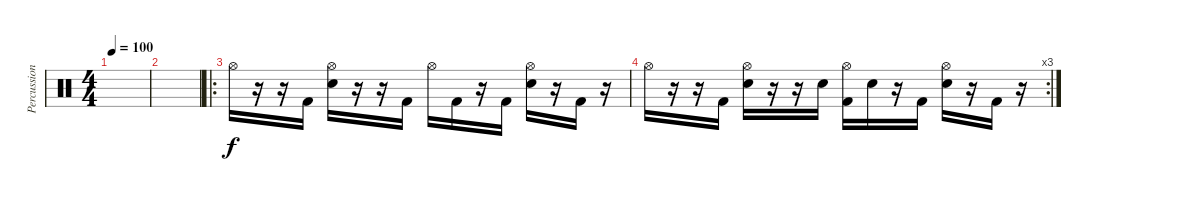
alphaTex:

\track ("Percussion" "Percussion") {instrument percussion}
\staff {score}
\articulation defaults
\ts (4 4)
\tempo 100
\clef neutral
\ks c
|
|
\ro "Hi-Hat (open)".16
r.16 r.16 "Kick (hit) 2".16 ("Hi-Hat (open)" "Electric Snare (hit)").16 r.16 r.16 "Kick (hit) 2".16 "Hi-Hat (open)".16 "Kick (hit) 2".16 r.16 "Kick (hit) 2".16 ("Hi-Hat (open)" "Electric Snare (hit)").16 r.16 "Kick (hit) 2".16 r.16 |
\rc 3 "Hi-Hat (open)".16
r.16 r.16 "Kick (hit) 2".16 ("Hi-Hat (open)" "Electric Snare (hit)").16 r.16 r.16 "Electric Snare (hit)".16 ("Hi-Hat (open)" "Kick (hit) 2").16 "Electric Snare (hit)".16 r.16 "Kick (hit) 2".16 ("Hi-Hat (open)" "Electric Snare (hit)").16 r.16 "Kick (hit) 2".16 r.16
